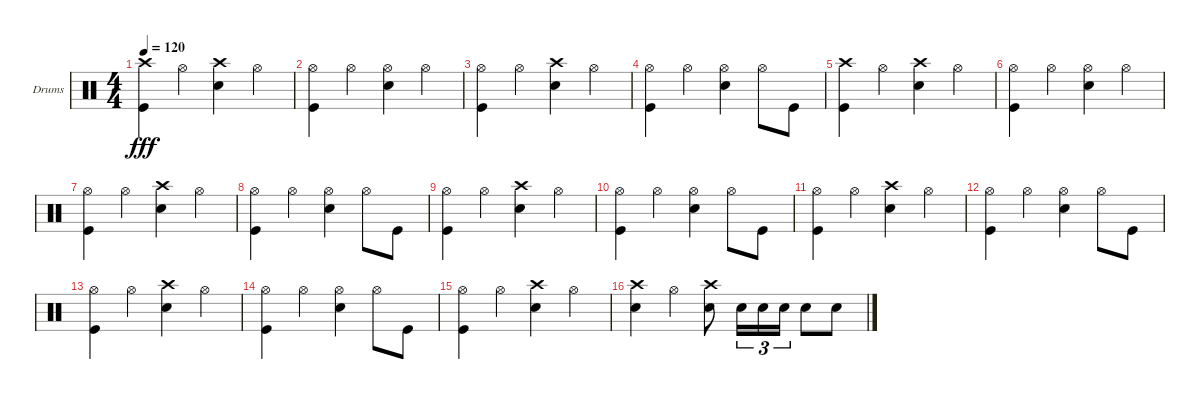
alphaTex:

\bracketExtendMode groupsimilarinstruments
\firstSystemTrackNameOrientation horizontal
\otherSystemsTrackNameOrientation horizontal
\track ("Drumkit" "Drums") {instrument percussion}
\staff {score}
\articulation defaults
\ts (4 4)
\tempo 120
\clef neutral
\ks c
("Kick (hit)" "Crash high (hit)").4{dy fff} "Hi-Hat (open)".4 ("Crash high (hit)" "Snare (hit) 2").4 "Hi-Hat (open)".4 |
("Hi-Hat (open)" "Kick (hit)").4 "Hi-Hat (open)".4 ("Snare (hit) 2" "Hi-Hat (open)").4 "Hi-Hat (open)".4 |
("Kick (hit)" "Hi-Hat (open)").4 "Hi-Hat (open)".4 ("Crash high (hit)" "Snare (hit) 2").4 "Hi-Hat (open)".4 |
("Kick (hit)" "Hi-Hat (open)").4 "Hi-Hat (open)".4 ("Snare (hit) 2" "Hi-Hat (open)").4 "Hi-Hat (open)".8 "Kick (hit)".8 |
("Kick (hit)" "Crash high (hit)").4 "Hi-Hat (open)".4 ("Crash high (hit)" "Snare (hit) 2").4 "Hi-Hat (open)".4 |
("Hi-Hat (open)" "Kick (hit)").4 "Hi-Hat (open)".4 ("Snare (hit) 2" "Hi-Hat (open)").4 "Hi-Hat (open)".4 |
("Kick (hit)" "Hi-Hat (open)").4 "Hi-Hat (open)".4 ("Crash high (hit)" "Snare (hit) 2").4 "Hi-Hat (open)".4 |
("Kick (hit)" "Hi-Hat (open)").4 "Hi-Hat (open)".4 ("Snare (hit) 2" "Hi-Hat (open)").4 "Hi-Hat (open)".8 "Kick (hit)".8 |
("Kick (hit)" "Hi-Hat (open)").4 "Hi-Hat (open)".4 ("Crash high (hit)" "Snare (hit) 2").4 "Hi-Hat (open)".4 |
("Kick (hit)" "Hi-Hat (open)").4 "Hi-Hat (open)".4 ("Snare (hit) 2" "Hi-Hat (open)").4 "Hi-Hat (open)".8 "Kick (hit)".8 |
("Kick (hit)" "Hi-Hat (open)").4 "Hi-Hat (open)".4 ("Crash high (hit)" "Snare (hit) 2").4 "Hi-Hat (open)".4 |
("Kick (hit)" "Hi-Hat (open)").4 "Hi-Hat (open)".4 ("Snare (hit) 2" "Hi-Hat (open)").4 "Hi-Hat (open)".8 "Kick (hit)".8 |
("Kick (hit)" "Hi-Hat (open)").4 "Hi-Hat (open)".4 ("Crash high (hit)" "Snare (hit) 2").4 "Hi-Hat (open)".4 |
("Kick (hit)" "Hi-Hat (open)").4 "Hi-Hat (open)".4 ("Snare (hit) 2" "Hi-Hat (open)").4 "Hi-Hat (open)".8 "Kick (hit)".8 |
("Hi-Hat (open)" "Kick (hit)").4 "Hi-Hat (open)".4 ("Crash high (hit)" "Snare (hit) 2").4 "Hi-Hat (open)".4 |
("Crash high (hit)" "Snare (hit) 2").4 "Hi-Hat (open)".4 ("Crash high (hit)" "Snare (hit) 2").8 "Snare (hit) 2".16{tu (3 2)} "Snare (hit) 2".16{tu (3 2)} "Snare (hit) 2".16{tu (3 2)} "Snare (hit) 2".8 "Snare (hit) 2".8
